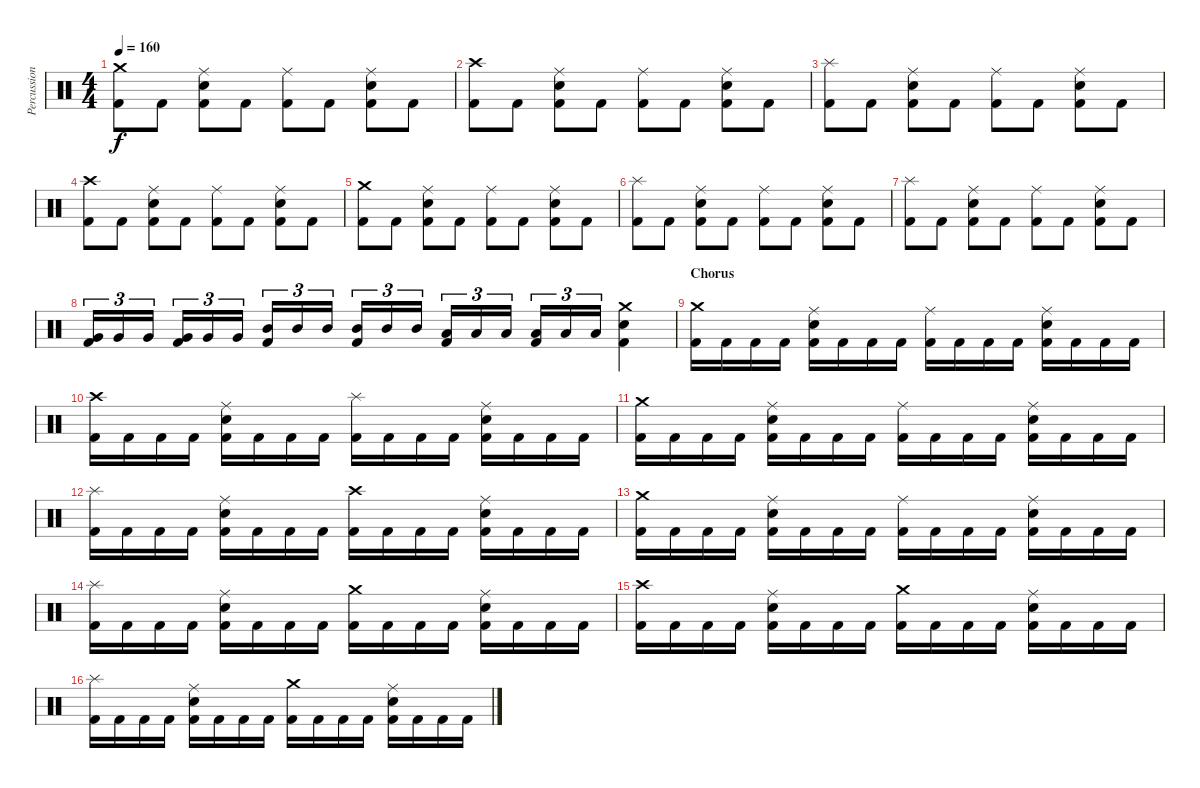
\track ("Percussions" "Percussion") {instrument percussion}
\staff {score}
\articulation defaults
\ts (4 4)
\tempo 160
\clef neutral
\ks c
("Crash medium (hit)" "Kick (hit) 2").8{dy f} "Kick (hit) 2".8 ("Electric Snare (hit)" "Ride (middle)" "Kick (hit) 2").8 "Kick (hit) 2".8 ("Ride (middle)" "Kick (hit) 2").8 "Kick (hit) 2".8 ("Electric Snare (hit)" "Ride (middle)" "Kick (hit) 2").8 "Kick (hit) 2".8 |
("Crash high (hit)" "Kick (hit) 2").8 "Kick (hit) 2".8 ("Electric Snare (hit)" "Ride (middle)" "Kick (hit) 2").8 "Kick (hit) 2".8 ("Ride (middle)" "Kick (hit) 2").8 "Kick (hit) 2".8 ("Electric Snare (hit)" "Ride (middle)" "Kick (hit) 2").8 "Kick (hit) 2".8 |
("Splash (hit)" "Kick (hit) 2").8 "Kick (hit) 2".8 ("Electric Snare (hit)" "Ride (middle)" "Kick (hit) 2").8 "Kick (hit) 2".8 ("Ride (middle)" "Kick (hit) 2").8 "Kick (hit) 2".8 ("Electric Snare (hit)" "Ride (middle)" "Kick (hit) 2").8 "Kick (hit) 2".8 |
("Crash high (hit)" "Kick (hit) 2").8 "Kick (hit) 2".8 ("Electric Snare (hit)" "Ride (middle)" "Kick (hit) 2").8 "Kick (hit) 2".8 ("Ride (middle)" "Kick (hit) 2").8 "Kick (hit) 2".8 ("Electric Snare (hit)" "Ride (middle)" "Kick (hit) 2").8 "Kick (hit) 2".8 |
("Crash medium (hit)" "Kick (hit) 2").8 "Kick (hit) 2".8 ("Electric Snare (hit)" "Ride (middle)" "Kick (hit) 2").8 "Kick (hit) 2".8 ("Ride (middle)" "Kick (hit) 2").8 "Kick (hit) 2".8 ("Electric Snare (hit)" "Ride (middle)" "Kick (hit) 2").8 "Kick (hit) 2".8 |
("Splash (hit)" "Kick (hit) 2").8 "Kick (hit) 2".8 ("Electric Snare (hit)" "Ride (middle)" "Kick (hit) 2").8 "Kick (hit) 2".8 ("Ride (middle)" "Kick (hit) 2").8 "Kick (hit) 2".8 ("Electric Snare (hit)" "Ride (middle)" "Kick (hit) 2").8 "Kick (hit) 2".8 |
("Splash (hit)" "Kick (hit) 2").8 "Kick (hit) 2".8 ("Electric Snare (hit)" "Ride (middle)" "Kick (hit) 2").8 "Kick (hit) 2".8 ("Ride (middle)" "Kick (hit) 2").8 "Kick (hit) 2".8 ("Electric Snare (hit)" "Ride (middle)" "Kick (hit) 2").8 "Kick (hit) 2".8 |
("Very Low Tom (hit)" "Kick (hit) 2").16{tu (3 2)} "Very Low Tom (hit)".16{tu (3 2)} "Very Low Tom (hit)".16{tu (3 2)} ("Very Low Tom (hit)" "Kick (hit) 2").16{tu (3 2)} "Very Low Tom (hit)".16{tu (3 2)} "Very Low Tom (hit)".16{tu (3 2)} ("Mid Tom (hit)" "Kick (hit) 2").16{tu (3 2)} "Mid Tom (hit)".16{tu (3 2)} "Mid Tom (hit)".16{tu (3 2)} ("Mid Tom (hit)" "Kick (hit) 2").16{tu (3 2)} "Mid Tom (hit)".16{tu (3 2)} "Mid Tom (hit)".16{tu (3 2)} ("Low Tom (hit)" "Kick (hit) 2").16{tu (3 2)} "Low Tom (hit)".16{tu (3 2)} "Low Tom (hit)".16{tu (3 2)} ("Low Tom (hit)" "Kick (hit) 2").16{tu (3 2)} "Low Tom (hit)".16{tu (3 2)} "Low Tom (hit)".16{tu (3 2)} ("Crash medium (hit)" "Electric Snare (hit)" "Kick (hit) 2").4 |
\section ("" "Chorus")
("Crash medium (hit)" "Kick (hit) 2").16 "Kick (hit) 2".16 "Kick (hit) 2".16 "Kick (hit) 2".16 ("Electric Snare (hit)" "Ride (middle)" "Kick (hit) 2").16 "Kick (hit) 2".16 "Kick (hit) 2".16 "Kick (hit) 2".16 ("Ride (middle)" "Kick (hit) 2").16 "Kick (hit) 2".16 "Kick (hit) 2".16 "Kick (hit) 2".16 ("Electric Snare (hit)" "Ride (middle)" "Kick (hit) 2").16 "Kick (hit) 2".16 "Kick (hit) 2".16 "Kick (hit) 2".16 |
("Crash high (hit)" "Kick (hit) 2").16 "Kick (hit) 2".16 "Kick (hit) 2".16 "Kick (hit) 2".16 ("Electric Snare (hit)" "Ride (middle)" "Kick (hit) 2").16 "Kick (hit) 2".16 "Kick (hit) 2".16 "Kick (hit) 2".16 ("Splash (hit)" "Kick (hit) 2").16 "Kick (hit) 2".16 "Kick (hit) 2".16 "Kick (hit) 2".16 ("Electric Snare (hit)" "Ride (middle)" "Kick (hit) 2").16 "Kick (hit) 2".16 "Kick (hit) 2".16 "Kick (hit) 2".16 |
("Crash medium (hit)" "Kick (hit) 2").16 "Kick (hit) 2".16 "Kick (hit) 2".16 "Kick (hit) 2".16 ("Electric Snare (hit)" "Ride (middle)" "Kick (hit) 2").16 "Kick (hit) 2".16 "Kick (hit) 2".16 "Kick (hit) 2".16 ("Ride (middle)" "Kick (hit) 2").16 "Kick (hit) 2".16 "Kick (hit) 2".16 "Kick (hit) 2".16 ("Electric Snare (hit)" "Ride (middle)" "Kick (hit) 2").16 "Kick (hit) 2".16 "Kick (hit) 2".16 "Kick (hit) 2".16 |
("Splash (hit)" "Kick (hit) 2").16 "Kick (hit) 2".16 "Kick (hit) 2".16 "Kick (hit) 2".16 ("Electric Snare (hit)" "Ride (middle)" "Kick (hit) 2").16 "Kick (hit) 2".16 "Kick (hit) 2".16 "Kick (hit) 2".16 ("Crash high (hit)" "Kick (hit) 2").16 "Kick (hit) 2".16 "Kick (hit) 2".16 "Kick (hit) 2".16 ("Electric Snare (hit)" "Ride (middle)" "Kick (hit) 2").16 "Kick (hit) 2".16 "Kick (hit) 2".16 "Kick (hit) 2".16 |
("Crash medium (hit)" "Kick (hit) 2").16 "Kick (hit) 2".16 "Kick (hit) 2".16 "Kick (hit) 2".16 ("Electric Snare (hit)" "Ride (middle)" "Kick (hit) 2").16 "Kick (hit) 2".16 "Kick (hit) 2".16 "Kick (hit) 2".16 ("Ride (middle)" "Kick (hit) 2").16 "Kick (hit) 2".16 "Kick (hit) 2".16 "Kick (hit) 2".16 ("Electric Snare (hit)" "Ride (middle)" "Kick (hit) 2").16 "Kick (hit) 2".16 "Kick (hit) 2".16 "Kick (hit) 2".16 |
("Splash (hit)" "Kick (hit) 2").16 "Kick (hit) 2".16 "Kick (hit) 2".16 "Kick (hit) 2".16 ("Electric Snare (hit)" "Ride (middle)" "Kick (hit) 2").16 "Kick (hit) 2".16 "Kick (hit) 2".16 "Kick (hit) 2".16 ("Crash medium (hit)" "Kick (hit) 2").16 "Kick (hit) 2".16 "Kick (hit) 2".16 "Kick (hit) 2".16 ("Electric Snare (hit)" "Ride (middle)" "Kick (hit) 2").16 "Kick (hit) 2".16 "Kick (hit) 2".16 "Kick (hit) 2".16 |
("Crash high (hit)" "Kick (hit) 2").16 "Kick (hit) 2".16 "Kick (hit) 2".16 "Kick (hit) 2".16 ("Electric Snare (hit)" "Ride (middle)" "Kick (hit) 2").16 "Kick (hit) 2".16 "Kick (hit) 2".16 "Kick (hit) 2".16 ("Crash medium (hit)" "Kick (hit) 2").16 "Kick (hit) 2".16 "Kick (hit) 2".16 "Kick (hit) 2".16 ("Electric Snare (hit)" "Ride (middle)" "Kick (hit) 2").16 "Kick (hit) 2".16 "Kick (hit) 2".16 "Kick (hit) 2".16 |
("Splash (hit)" "Kick (hit) 2").16 "Kick (hit) 2".16 "Kick (hit) 2".16 "Kick (hit) 2".16 ("Electric Snare (hit)" "Ride (middle)" "Kick (hit) 2").16 "Kick (hit) 2".16 "Kick (hit) 2".16 "Kick (hit) 2".16 ("Crash medium (hit)" "Kick (hit) 2").16 "Kick (hit) 2".16 "Kick (hit) 2".16 "Kick (hit) 2".16 ("Electric Snare (hit)" "Ride (middle)" "Kick (hit) 2").16 "Kick (hit) 2".16 "Kick (hit) 2".16 "Kick (hit) 2".16
